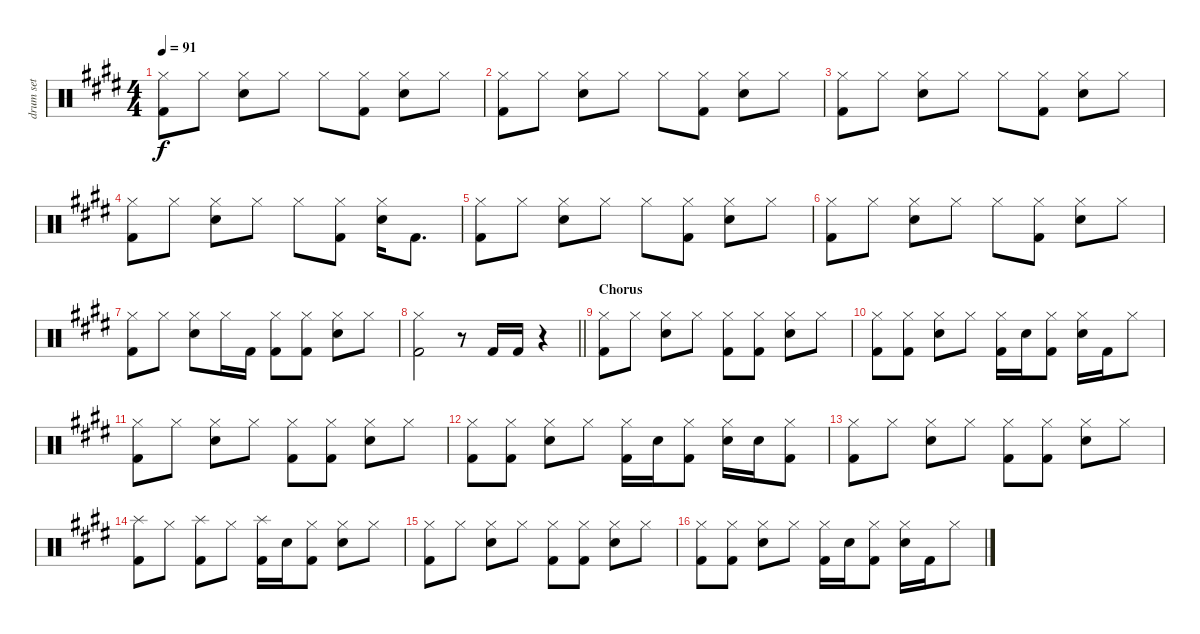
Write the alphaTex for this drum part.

\track ("drum set" "drum set") {instrument percussion}
\staff {score}
\articulation defaults
\ts (4 4)
\tempo 91
\clef neutral
\ks e
("Hi-Hat (closed)" "Kick (hit) 2").8{dy f} "Hi-Hat (closed)".8 ("Hi-Hat (closed)" "Hand Clap (hit)").8 "Hi-Hat (closed)".8 "Hi-Hat (closed)".8 ("Hi-Hat (closed)" "Kick (hit) 2").8 ("Hi-Hat (closed)" "Hand Clap (hit)").8 "Hi-Hat (closed)".8 |
\ks c#minor
("Hi-Hat (closed)" "Kick (hit) 2").8 "Hi-Hat (closed)".8 ("Hi-Hat (closed)" "Hand Clap (hit)").8 "Hi-Hat (closed)".8 "Hi-Hat (closed)".8 ("Hi-Hat (closed)" "Kick (hit) 2").8 ("Hi-Hat (closed)" "Hand Clap (hit)").8 "Hi-Hat (closed)".8 |
("Hi-Hat (closed)" "Kick (hit) 2").8 "Hi-Hat (closed)".8 ("Hi-Hat (closed)" "Hand Clap (hit)").8 "Hi-Hat (closed)".8 "Hi-Hat (closed)".8 ("Hi-Hat (closed)" "Kick (hit) 2").8 ("Hi-Hat (closed)" "Hand Clap (hit)").8 "Hi-Hat (closed)".8 |
("Hi-Hat (closed)" "Kick (hit) 2").8 "Hi-Hat (closed)".8 ("Hi-Hat (closed)" "Hand Clap (hit)").8 "Hi-Hat (closed)".8 "Hi-Hat (closed)".8 ("Hi-Hat (closed)" "Kick (hit) 2").8 ("Hi-Hat (closed)" "Hand Clap (hit)").16 "Kick (hit) 2".8{d} |
("Hi-Hat (closed)" "Kick (hit) 2").8 "Hi-Hat (closed)".8 ("Hi-Hat (closed)" "Hand Clap (hit)").8 "Hi-Hat (closed)".8 "Hi-Hat (closed)".8 ("Hi-Hat (closed)" "Kick (hit) 2").8 ("Hi-Hat (closed)" "Hand Clap (hit)").8 "Hi-Hat (closed)".8 |
("Hi-Hat (closed)" "Kick (hit) 2").8 "Hi-Hat (closed)".8 ("Hi-Hat (closed)" "Hand Clap (hit)").8 "Hi-Hat (closed)".8 "Hi-Hat (closed)".8 ("Hi-Hat (closed)" "Kick (hit) 2").8 ("Hi-Hat (closed)" "Hand Clap (hit)").8 "Hi-Hat (closed)".8 |
("Hi-Hat (closed)" "Kick (hit) 2").8 "Hi-Hat (closed)".8 ("Hi-Hat (closed)" "Hand Clap (hit)").8 "Hi-Hat (closed)".16 "Kick (hit) 2".16 ("Hi-Hat (closed)" "Kick (hit) 2").8 ("Hi-Hat (closed)" "Kick (hit) 2").8 ("Hi-Hat (closed)" "Hand Clap (hit)").8 "Hi-Hat (closed)".8 |
\barLineRight lightlight
\ks e
("Hi-Hat (closed)" "Kick (hit) 2").2 r.8 "Kick (hit) 2".16 "Kick (hit) 2".16 r.4 |
\section ("" "Chorus")
("Hi-Hat (closed)" "Kick (hit) 2").8 "Hi-Hat (closed)".8 ("Hi-Hat (closed)" "Hand Clap (hit)").8 "Hi-Hat (closed)".8 ("Hi-Hat (closed)" "Kick (hit) 2").8 ("Hi-Hat (closed)" "Kick (hit) 2").8 ("Hi-Hat (closed)" "Hand Clap (hit)").8 "Hi-Hat (closed)".8 |
\ks c#minor
("Hi-Hat (closed)" "Kick (hit) 2").8 ("Hi-Hat (closed)" "Kick (hit) 2").8 ("Hi-Hat (closed)" "Hand Clap (hit)").8 "Hi-Hat (closed)".8 ("Hi-Hat (closed)" "Kick (hit) 2").16 "Hand Clap (hit)".16 ("Hi-Hat (closed)" "Kick (hit) 2").8 ("Hi-Hat (closed)" "Hand Clap (hit)").16 "Kick (hit) 2".16 "Hi-Hat (closed)".8 |
("Hi-Hat (closed)" "Kick (hit) 2").8 "Hi-Hat (closed)".8 ("Hi-Hat (closed)" "Hand Clap (hit)").8 "Hi-Hat (closed)".8 ("Hi-Hat (closed)" "Kick (hit) 2").8 ("Hi-Hat (closed)" "Kick (hit) 2").8 ("Hi-Hat (closed)" "Hand Clap (hit)").8 "Hi-Hat (closed)".8 |
("Hi-Hat (closed)" "Kick (hit) 2").8 ("Hi-Hat (closed)" "Kick (hit) 2").8 ("Hi-Hat (closed)" "Hand Clap (hit)").8 "Hi-Hat (closed)".8 ("Hi-Hat (closed)" "Kick (hit) 2").16 "Hand Clap (hit)".16 ("Hi-Hat (closed)" "Kick (hit) 2").8 ("Hi-Hat (closed)" "Hand Clap (hit)").16 "Hand Clap (hit)".16 ("Hi-Hat (closed)" "Kick (hit) 2").8 |
\ks e
("Hi-Hat (closed)" "Kick (hit) 2").8 "Hi-Hat (closed)".8 ("Hi-Hat (closed)" "Hand Clap (hit)").8 "Hi-Hat (closed)".8 ("Hi-Hat (closed)" "Kick (hit) 2").8 ("Hi-Hat (closed)" "Kick (hit) 2").8 ("Hi-Hat (closed)" "Hand Clap (hit)").8 "Hi-Hat (closed)".8 |
\ks c#minor
("Splash (hit)" "Kick (hit) 2").8 "Hi-Hat (closed)".8 ("Splash (hit)" "Kick (hit) 2").8 "Hi-Hat (closed)".8 ("Splash (hit)" "Kick (hit) 2").16 "Hand Clap (hit)".16 ("Hi-Hat (closed)" "Kick (hit) 2").8 ("Hi-Hat (closed)" "Hand Clap (hit)").8 "Hi-Hat (closed)".8 |
("Hi-Hat (closed)" "Kick (hit) 2").8 "Hi-Hat (closed)".8 ("Hi-Hat (closed)" "Hand Clap (hit)").8 "Hi-Hat (closed)".8 ("Hi-Hat (closed)" "Kick (hit) 2").8 ("Hi-Hat (closed)" "Kick (hit) 2").8 ("Hi-Hat (closed)" "Hand Clap (hit)").8 "Hi-Hat (closed)".8 |
("Hi-Hat (closed)" "Kick (hit) 2").8 ("Hi-Hat (closed)" "Kick (hit) 2").8 ("Hi-Hat (closed)" "Hand Clap (hit)").8 "Hi-Hat (closed)".8 ("Hi-Hat (closed)" "Kick (hit) 2").16 "Hand Clap (hit)".16 ("Hi-Hat (closed)" "Kick (hit) 2").8 ("Hi-Hat (closed)" "Hand Clap (hit)").16 "Kick (hit) 2".16 "Hi-Hat (closed)".8
